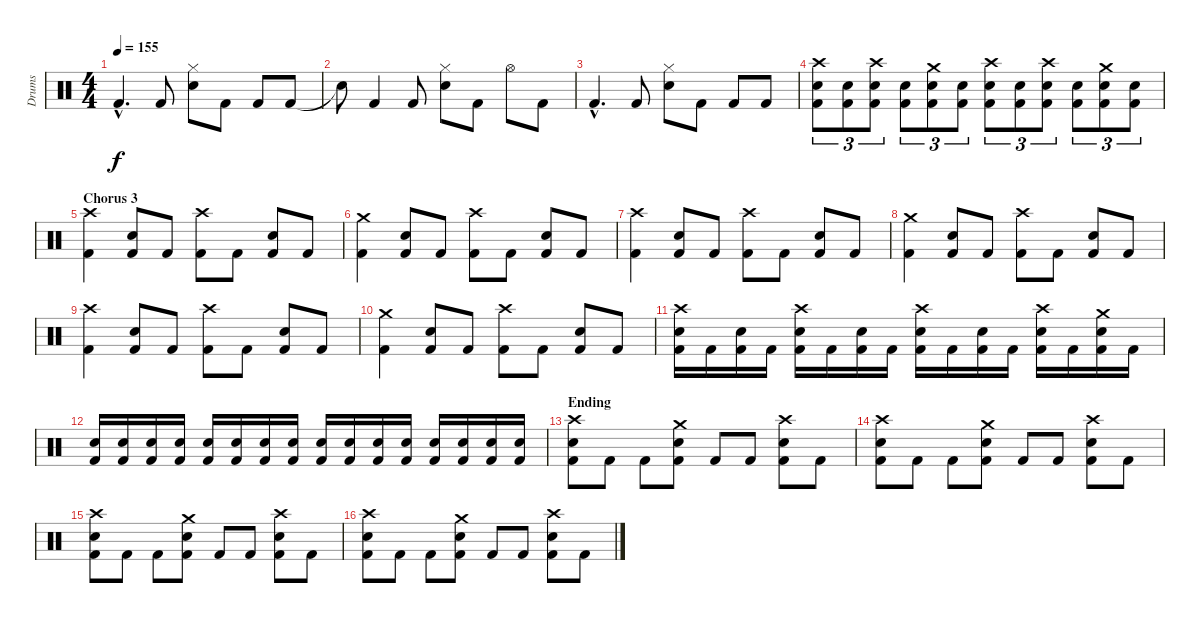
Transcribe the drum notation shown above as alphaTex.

\track ("Drums" "Drums") {instrument percussion}
\staff {score}
\articulation defaults
\ts (4 4)
\tempo 155
\clef neutral
\ks c "Kick (hit) 2"{hac}.4{d dy f} "Kick (hit) 2".8
("Hi-Hat (closed)" "Snare (hit) 2").8 "Kick (hit) 2".8 "Kick (hit) 2".8 "Kick (hit) 2".8 |
"Snare (hit)"{t}.8 "Kick (hit) 2".4 "Kick (hit) 2".8 ("Hi-Hat (closed)" "Snare (hit) 2").8 "Kick (hit) 2".8 "Hi-Hat (open)".8 "Kick (hit) 2".8 |
"Kick (hit) 2"{hac}.4{d} "Kick (hit) 2".8 ("Hi-Hat (closed)" "Snare (hit) 2").8 "Kick (hit) 2".8 "Kick (hit) 2".8 "Kick (hit) 2".8 |
("Crash high (hit)" "Kick (hit) 2" "Snare (hit) 2").8{tu (3 2)} ("Kick (hit) 2" "Snare (hit) 2").8{tu (3 2)} ("Crash high (hit)" "Kick (hit) 2" "Snare (hit) 2").8{tu (3 2)} ("Kick (hit) 2" "Snare (hit) 2").8{tu (3 2)} ("Crash medium (hit)" "Kick (hit) 2" "Snare (hit) 2").8{tu (3 2)} ("Kick (hit) 2" "Snare (hit) 2").8{tu (3 2)} ("Crash high (hit)" "Kick (hit) 2" "Snare (hit) 2").8{tu (3 2)} ("Kick (hit) 2" "Snare (hit) 2").8{tu (3 2)} ("Crash high (hit)" "Kick (hit) 2" "Snare (hit) 2").8{tu (3 2)} ("Kick (hit) 2" "Snare (hit) 2").8{tu (3 2)} ("Crash medium (hit)" "Kick (hit) 2" "Snare (hit) 2").8{tu (3 2)} ("Kick (hit) 2" "Snare (hit) 2").8{tu (3 2)} |
\section ("" "Chorus 3")
("Crash high (hit)" "Kick (hit) 2").4 ("Kick (hit) 2" "Snare (hit) 2").8 "Kick (hit) 2".8 ("Crash high (hit)" "Kick (hit) 2").8 "Kick (hit) 2".8 ("Kick (hit) 2" "Snare (hit) 2").8 "Kick (hit) 2".8 |
("Crash medium (hit)" "Kick (hit) 2").4 ("Kick (hit) 2" "Snare (hit) 2").8 "Kick (hit) 2".8 ("Crash high (hit)" "Kick (hit) 2").8 "Kick (hit) 2".8 ("Kick (hit) 2" "Snare (hit) 2").8 "Kick (hit) 2".8 |
("Crash high (hit)" "Kick (hit) 2").4 ("Kick (hit) 2" "Snare (hit) 2").8 "Kick (hit) 2".8 ("Crash high (hit)" "Kick (hit) 2").8 "Kick (hit) 2".8 ("Kick (hit) 2" "Snare (hit) 2").8 "Kick (hit) 2".8 |
("Crash medium (hit)" "Kick (hit) 2").4 ("Kick (hit) 2" "Snare (hit) 2").8 "Kick (hit) 2".8 ("Crash high (hit)" "Kick (hit) 2").8 "Kick (hit) 2".8 ("Kick (hit) 2" "Snare (hit) 2").8 "Kick (hit) 2".8 |
("Crash high (hit)" "Kick (hit) 2").4 ("Kick (hit) 2" "Snare (hit) 2").8 "Kick (hit) 2".8 ("Crash high (hit)" "Kick (hit) 2").8 "Kick (hit) 2".8 ("Kick (hit) 2" "Snare (hit) 2").8 "Kick (hit) 2".8 |
("Crash medium (hit)" "Kick (hit) 2").4 ("Kick (hit) 2" "Snare (hit) 2").8 "Kick (hit) 2".8 ("Crash high (hit)" "Kick (hit) 2").8 "Kick (hit) 2".8 ("Kick (hit) 2" "Snare (hit) 2").8 "Kick (hit) 2".8 |
("Crash high (hit)" "Kick (hit) 2" "Snare (hit) 2").16 "Kick (hit) 2".16 ("Kick (hit) 2" "Snare (hit) 2").16 "Kick (hit) 2".16 ("Crash high (hit)" "Kick (hit) 2" "Snare (hit) 2").16 "Kick (hit) 2".16 ("Kick (hit) 2" "Snare (hit) 2").16 "Kick (hit) 2".16 ("Crash high (hit)" "Kick (hit) 2" "Snare (hit) 2").16 "Kick (hit) 2".16 ("Kick (hit) 2" "Snare (hit) 2").16 "Kick (hit) 2".16 ("Crash high (hit)" "Kick (hit) 2" "Snare (hit) 2").16 "Kick (hit) 2".16 ("Crash medium (hit)" "Kick (hit) 2" "Snare (hit) 2").16 "Kick (hit) 2".16 |
("Kick (hit) 2" "Snare (hit) 2").16 ("Kick (hit) 2" "Snare (hit) 2").16 ("Kick (hit) 2" "Snare (hit) 2").16 ("Kick (hit) 2" "Snare (hit) 2").16 ("Kick (hit) 2" "Snare (hit) 2").16 ("Kick (hit) 2" "Snare (hit) 2").16 ("Kick (hit) 2" "Snare (hit) 2").16 ("Kick (hit) 2" "Snare (hit) 2").16 ("Kick (hit) 2" "Snare (hit) 2").16 ("Kick (hit) 2" "Snare (hit) 2").16 ("Kick (hit) 2" "Snare (hit) 2").16 ("Kick (hit) 2" "Snare (hit) 2").16 ("Kick (hit) 2" "Snare (hit) 2").16 ("Kick (hit) 2" "Snare (hit) 2").16 ("Kick (hit) 2" "Snare (hit) 2").16 ("Kick (hit) 2" "Snare (hit) 2").16 |
\section ("" "Ending")
("Crash high (hit)" "Kick (hit) 2" "Snare (hit) 2").8 "Kick (hit) 2".8 "Kick (hit) 2".8 ("Crash medium (hit)" "Kick (hit) 2" "Snare (hit) 2").8 "Kick (hit) 2".8 "Kick (hit) 2".8 ("Crash high (hit)" "Kick (hit) 2" "Snare (hit) 2").8 "Kick (hit) 2".8 |
("Crash high (hit)" "Kick (hit) 2" "Snare (hit) 2").8 "Kick (hit) 2".8 "Kick (hit) 2".8 ("Crash medium (hit)" "Kick (hit) 2" "Snare (hit) 2").8 "Kick (hit) 2".8 "Kick (hit) 2".8 ("Crash high (hit)" "Kick (hit) 2" "Snare (hit) 2").8 "Kick (hit) 2".8 |
("Crash high (hit)" "Kick (hit) 2" "Snare (hit) 2").8 "Kick (hit) 2".8 "Kick (hit) 2".8 ("Crash medium (hit)" "Kick (hit) 2" "Snare (hit) 2").8 "Kick (hit) 2".8 "Kick (hit) 2".8 ("Crash high (hit)" "Kick (hit) 2" "Snare (hit) 2").8 "Kick (hit) 2".8 |
("Crash high (hit)" "Kick (hit) 2" "Snare (hit) 2").8 "Kick (hit) 2".8 "Kick (hit) 2".8 ("Crash medium (hit)" "Kick (hit) 2" "Snare (hit) 2").8 "Kick (hit) 2".8 "Kick (hit) 2".8 ("Crash high (hit)" "Kick (hit) 2" "Snare (hit) 2").8 "Kick (hit) 2".8
